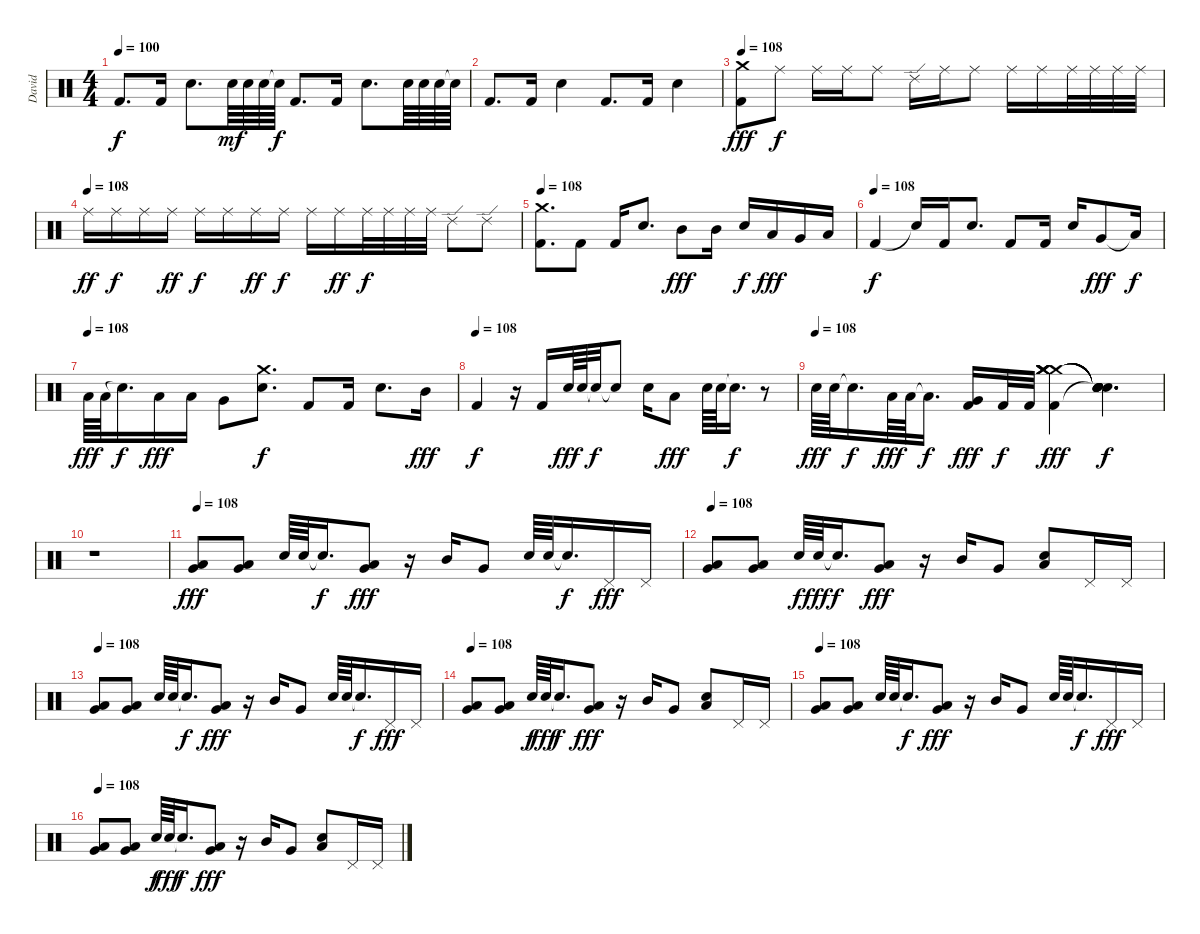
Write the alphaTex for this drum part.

\track ("David" "David") {instrument percussion}
\staff {score}
\articulation defaults
\ts (4 4)
\tempo 100
\clef neutral
\ks c "Kick (hit) 2".8{d dy f} "Kick (hit) 2".16 "Snare (hit) 2".8{d} "Snare (hit) 2".64{dy mf} "Snare (hit) 2".64 "Snare (hit) 2".64 "Snare (hit)"{t}.64{dy f} "Kick (hit) 2".8{d} "Kick (hit) 2".16 "Snare (hit) 2".8{d} "Snare (hit) 2".64 "Snare (hit) 2".64 "Snare (hit) 2".64 "Snare (hit)"{t}.64
|
"Kick (hit) 2".8{d} "Kick (hit) 2".16 "Snare (hit) 2".4 "Kick (hit) 2".8{d} "Kick (hit) 2".16 "Snare (hit) 2".4 |
\tempo 108
("Kick (hit) 2" "Crash medium (hit)").8{dy fff} "Ride (middle)".8{dy f} "Ride (middle)".16 "Ride (middle)".16 "Ride (middle)".8 "Ride (edge) 2".16 "Ride (middle)".16 "Ride (middle)".8 "Ride (middle)".16 "Ride (middle)".16 "Ride (middle)".32 "Ride (middle)".32 "Ride (middle)".32 "Ride (middle)".32 |
\tempo (108)
"Ride (middle)".16{dy ff} "Ride (middle)".16{dy f} "Ride (middle)".16 "Ride (middle)".16{dy ff} "Ride (middle)".16{dy f} "Ride (middle)".16 "Ride (middle)".16{dy ff} "Ride (middle)".16{dy f} "Ride (middle)".16 "Ride (middle)".16{dy ff} "Ride (middle)".32{dy f} "Ride (middle)".32 "Ride (middle)".32 "Ride (middle)".32 "Ride (edge) 2".8 "Ride (edge) 2".8 |
\tempo 108
("Crash medium (hit)" "Kick (hit) 2").8{d} "Kick (hit) 2".8 "Kick (hit) 2".16 "Snare (hit) 2".8{d} "Mid Tom (hit)".8{dy fff} "Mid Tom (hit)".16 "Snare (hit) 2".16{dy f} "Low Tom (hit)".16{dy fff} "Very Low Tom (hit)".16 "Low Floor Tom (hit)".16 |
\tempo (108)
"Kick (hit) 2".4{dy f} "Snare (hit)"{t}.16 "Kick (hit) 2".16 "Snare (hit) 2".8{d} "Kick (hit) 2".8 "Kick (hit) 2".16 "Snare (hit) 2".16 "Very Low Tom (hit)".8{dy fff} "Low Floor Tom (hit)"{t}.16{dy f} |
\tempo (108)
"Low Floor Tom (hit)".64{dy fff} "Low Floor Tom (hit)".64 "Snare (hit)"{t}.16{d dy f} "Low Tom (hit)".16{dy fff} "Low Tom (hit)".16 "Very Low Tom (hit)".8 ("Crash medium (hit)" "Snare (hit) 2").8{d dy f} "Kick (hit) 2".8 "Kick (hit) 2".16 "Snare (hit) 2".8{d} "Mid Tom (hit)".16{dy fff} |
\tempo (108)
"Kick (hit) 2".4{dy f} r.16 "Kick (hit) 2".16 "Snare (hit) 2".64{dy fff} "Snare (hit) 2".64 "Snare (hit)"{t}.32{dy f} "Snare (hit) 2"{t}.8 "Snare (hit) 2".16 "Low Tom (hit)".8{dy fff} "Snare (hit) 2".64 "Snare (hit) 2".64 "Snare (hit)"{t}.16{d dy f} r.8 |
\tempo (108)
"Snare (hit) 2".64{dy fff} "Snare (hit) 2".64 "Snare (hit) 2"{t}.16{d dy f} "Low Tom (hit)".64{dy fff} "Low Tom (hit)".64 "Low Tom (hit)"{t}.16{d dy f} ("Very Low Tom (hit)" "Kick (hit) 2").16{dy fff} "Kick (hit) 2".32{dy f} "Kick (hit) 2".32 ("Crash medium (hit)" "Crash medium (hit)" "Kick (hit) 2" "Crash medium (hit)" "Crash medium (hit)" "Crash medium (hit)").4{dy fff} ("Snare (hit)"{t} "Snare (hit)"{t} "Snare (hit)"{t} "Snare (hit)"{t} "Snare (hit)"{t} "Snare (hit)"{t}).4{d dy f} |
r.1 |
\tempo 108
("Low Tom (hit)" "Very Low Tom (hit)").8{dy fff} ("Low Tom (hit)" "Very Low Tom (hit)").8 "Snare (hit) 2".64 "Snare (hit) 2".64 "Snare (hit)"{t}.16{d dy f} ("Low Tom (hit)" "Very Low Tom (hit)").8{dy fff} r.16 "Mid Tom (hit)".16 "Very Low Tom (hit)".8 "Snare (hit) 2".64 "Snare (hit) 2".64 "Snare (hit) 2"{t}.16{d dy f} "Pedal Hi-Hat (hit)".16{dy fff} "Pedal Hi-Hat (hit)".16 |
\tempo 108
("Low Tom (hit)" "Very Low Tom (hit)").8 ("Low Tom (hit)" "Very Low Tom (hit)").8 "Snare (hit) 2".64{dy f} "Snare (hit) 2".64{dy fff} "Snare (hit)"{t}.16{d dy f} ("Low Tom (hit)" "Very Low Tom (hit)").8{dy fff} r.16 "Mid Tom (hit)".16 "Very Low Tom (hit)".8 ("Snare (hit) 2" "Low Floor Tom (hit)").8 "Pedal Hi-Hat (hit)".16 "Pedal Hi-Hat (hit)".16 |
\tempo 108
("Low Tom (hit)" "Very Low Tom (hit)").8 ("Low Tom (hit)" "Very Low Tom (hit)").8 "Snare (hit) 2".64 "Snare (hit) 2".64 "Snare (hit)"{t}.16{d dy f} ("Low Tom (hit)" "Very Low Tom (hit)").8{dy fff} r.16 "Mid Tom (hit)".16 "Very Low Tom (hit)".8 "Snare (hit) 2".64 "Snare (hit) 2".64 "Snare (hit) 2"{t}.16{d dy f} "Pedal Hi-Hat (hit)".16{dy fff} "Pedal Hi-Hat (hit)".16 |
\tempo 108
("Low Tom (hit)" "Very Low Tom (hit)").8 ("Low Tom (hit)" "Very Low Tom (hit)").8 "Snare (hit) 2".64{dy f} "Snare (hit) 2".64{dy fff} "Snare (hit)"{t}.16{d dy f} ("Low Tom (hit)" "Very Low Tom (hit)").8{dy fff} r.16 "Mid Tom (hit)".16 "Very Low Tom (hit)".8 ("Snare (hit) 2" "Low Floor Tom (hit)").8 "Pedal Hi-Hat (hit)".16 "Pedal Hi-Hat (hit)".16 |
\tempo 108
("Low Tom (hit)" "Very Low Tom (hit)").8 ("Low Tom (hit)" "Very Low Tom (hit)").8 "Snare (hit) 2".64 "Snare (hit) 2".64 "Snare (hit)"{t}.16{d dy f} ("Low Tom (hit)" "Very Low Tom (hit)").8{dy fff} r.16 "Mid Tom (hit)".16 "Very Low Tom (hit)".8 "Snare (hit) 2".64 "Snare (hit) 2".64 "Snare (hit) 2"{t}.16{d dy f} "Pedal Hi-Hat (hit)".16{dy fff} "Pedal Hi-Hat (hit)".16 |
\tempo 108
("Low Tom (hit)" "Very Low Tom (hit)").8 ("Low Tom (hit)" "Very Low Tom (hit)").8 "Snare (hit) 2".64{dy f} "Snare (hit) 2".64{dy fff} "Snare (hit)"{t}.16{d dy f} ("Low Tom (hit)" "Very Low Tom (hit)").8{dy fff} r.16 "Mid Tom (hit)".16 "Very Low Tom (hit)".8 ("Snare (hit) 2" "Low Floor Tom (hit)").8 "Pedal Hi-Hat (hit)".16 "Pedal Hi-Hat (hit)".16
